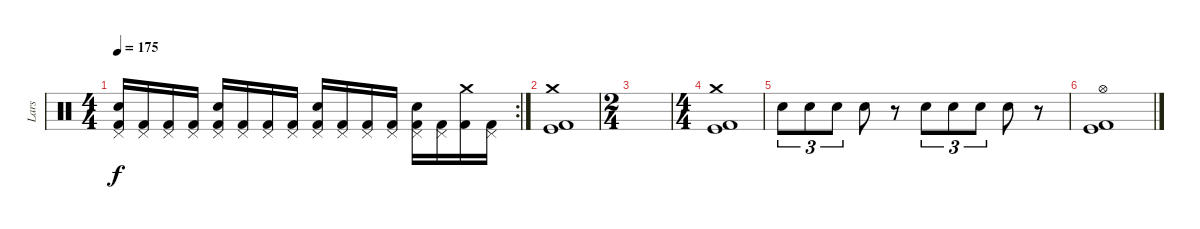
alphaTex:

\track ("Lars" "Lars") {instrument percussion}
\staff {score}
\articulation defaults
\rc 2
\ts (4 4)
\tempo 175
\clef neutral
\ks c
("Pedal Hi-Hat (hit)" "Electric Snare (hit)" "Kick (hit) 2").16{dy f} ("Pedal Hi-Hat (hit)" "Kick (hit) 2").16 ("Pedal Hi-Hat (hit)" "Kick (hit) 2").16 ("Pedal Hi-Hat (hit)" "Kick (hit) 2").16 ("Pedal Hi-Hat (hit)" "Electric Snare (hit)" "Kick (hit) 2").16 ("Pedal Hi-Hat (hit)" "Kick (hit) 2").16 ("Pedal Hi-Hat (hit)" "Kick (hit) 2").16 ("Pedal Hi-Hat (hit)" "Kick (hit) 2").16 ("Pedal Hi-Hat (hit)" "Electric Snare (hit)" "Kick (hit) 2").16 ("Pedal Hi-Hat (hit)" "Kick (hit) 2").16 ("Pedal Hi-Hat (hit)" "Kick (hit) 2").16 ("Pedal Hi-Hat (hit)" "Kick (hit) 2").16 ("Pedal Hi-Hat (hit)" "Electric Snare (hit)" "Kick (hit) 2").16 ("Pedal Hi-Hat (hit)" "Kick (hit) 2").16 ("Crash medium (hit)" "Kick (hit) 2").16 ("Pedal Hi-Hat (hit)" "Kick (hit) 2").16 |
("Crash medium (hit)" "Kick (hit)" "Kick (hit) 2").1 |
\ts (2 4)
|
\ts (4 4)
("Crash medium (hit)" "Kick (hit)" "Kick (hit) 2").1 |
"Electric Snare (hit)".8{tu (3 2)} "Electric Snare (hit)".8{tu (3 2)} "Electric Snare (hit)".8{tu (3 2)} "Electric Snare (hit)".8 r.8 "Electric Snare (hit)".8{tu (3 2)} "Electric Snare (hit)".8{tu (3 2)} "Electric Snare (hit)".8{tu (3 2)} "Electric Snare (hit)".8 r.8 |
("Hi-Hat (open)" "Kick (hit)" "Kick (hit) 2").1
